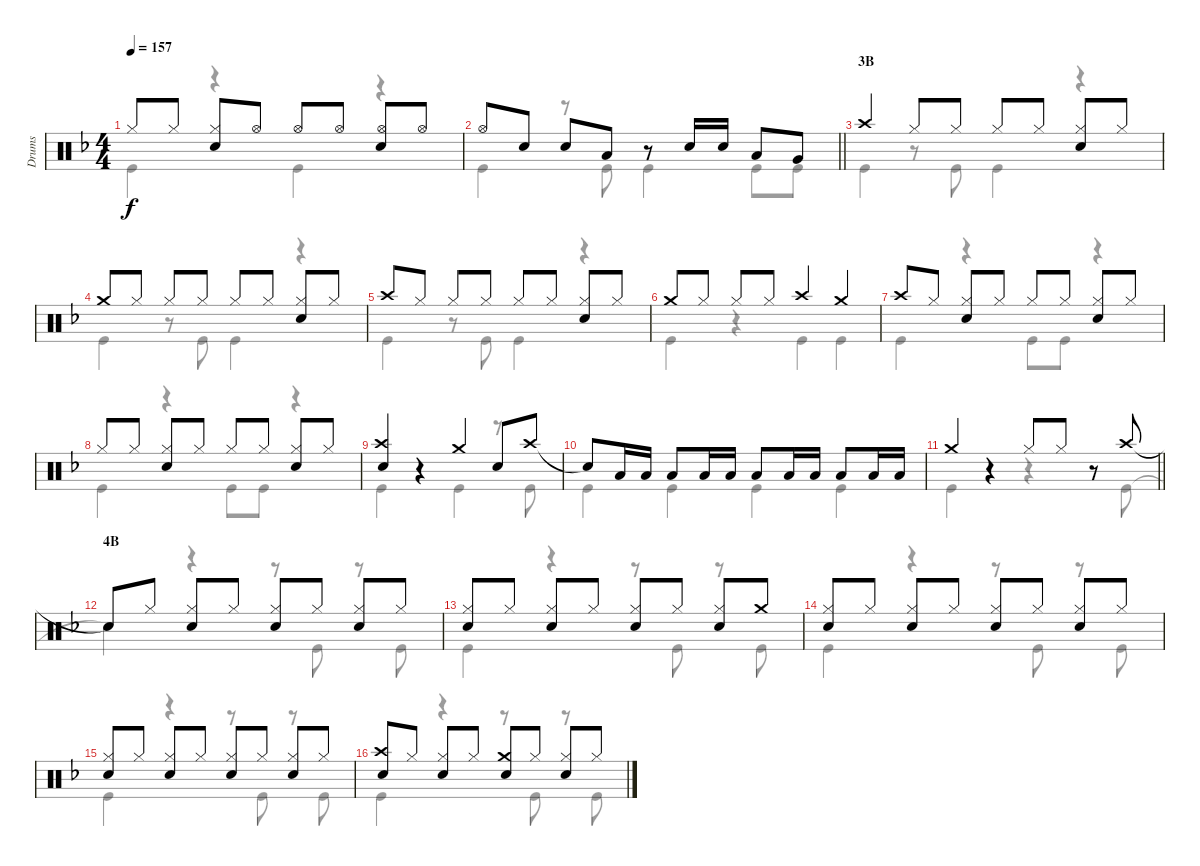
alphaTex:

\track ("Drums" "Drums") {instrument percussion}
\staff {score}
\articulation defaults
\voice
\ts (4 4)
\tempo 157
\clef neutral
\ks f "Hi-Hat (closed)".8{dy f} "Hi-Hat (closed)".8
("Hi-Hat (closed)" "Snare (hit) 2").8 "Hi-Hat (open)".8 "Hi-Hat (open)".8 "Hi-Hat (open)".8 ("Hi-Hat (open)" "Snare (hit) 2").8 "Hi-Hat (open)".8 |
\barLineRight lightlight "Hi-Hat (open)".8 "Snare (hit) 2".8 "Snare (hit) 2".8 "Low Tom (hit)".8
r.8 "Snare (hit) 2".16 "Snare (hit) 2".16 "Low Tom (hit)".8 "Very Low Tom (hit)".8 |
\section ("" "3B")
"Crash high (hit)".4 "Hi-Hat (closed)".8 "Hi-Hat (closed)".8 "Hi-Hat (closed)".8 "Hi-Hat (closed)".8 ("Hi-Hat (closed)" "Snare (hit) 2").8 "Hi-Hat (closed)".8 |
"Crash medium (hit)".8 "Hi-Hat (closed)".8 "Hi-Hat (closed)".8 "Hi-Hat (closed)".8 "Hi-Hat (closed)".8 "Hi-Hat (closed)".8 ("Hi-Hat (closed)" "Snare (hit) 2").8 "Hi-Hat (closed)".8 |
"Crash high (hit)".8 "Hi-Hat (closed)".8 "Hi-Hat (closed)".8 "Hi-Hat (closed)".8 "Hi-Hat (closed)".8 "Hi-Hat (closed)".8 ("Hi-Hat (closed)" "Snare (hit) 2").8 "Hi-Hat (closed)".8 |
"Crash medium (hit)".8 "Hi-Hat (closed)".8 "Hi-Hat (closed)".8 "Hi-Hat (closed)".8 "Crash high (hit)".4 "Crash medium (hit)".4 |
"Crash high (hit)".8 "Hi-Hat (closed)".8 ("Hi-Hat (closed)" "Snare (hit) 2").8 "Hi-Hat (closed)".8 "Hi-Hat (closed)".8 "Hi-Hat (closed)".8 ("Hi-Hat (closed)" "Snare (hit) 2").8 "Hi-Hat (closed)".8 |
"Hi-Hat (closed)".8 "Hi-Hat (closed)".8 ("Hi-Hat (closed)" "Snare (hit) 2").8 "Hi-Hat (closed)".8 "Hi-Hat (closed)".8 "Hi-Hat (closed)".8 ("Hi-Hat (closed)" "Snare (hit) 2").8 "Hi-Hat (closed)".8 |
("Crash high (hit)" "Snare (hit) 2").4 r.4 "Crash medium (hit)".4 "Snare (hit) 2".8 "Crash high (hit)".8 |
"Snare (hit)"{t}.8 "Low Tom (hit)".16 "Low Tom (hit)".16 "Low Tom (hit)".8 "Low Tom (hit)".16 "Low Tom (hit)".16 "Low Tom (hit)".8 "Low Tom (hit)".16 "Low Tom (hit)".16 "Low Tom (hit)".8 "Low Tom (hit)".16 "Low Tom (hit)".16 |
\barLineRight lightlight "Crash medium (hit)".4
r.4 "Hi-Hat (closed)".8 "Hi-Hat (closed)".8 r.8 "Crash high (hit)".8 |
\section ("" "4B")
"Snare (hit)"{t}.8 "Hi-Hat (closed)".8 ("Hi-Hat (closed)" "Snare (hit) 2").8 "Hi-Hat (closed)".8 ("Hi-Hat (closed)" "Snare (hit) 2").8 "Hi-Hat (closed)".8 ("Hi-Hat (closed)" "Snare (hit) 2").8 "Hi-Hat (closed)".8 |
("Hi-Hat (closed)" "Snare (hit) 2").8 "Hi-Hat (closed)".8 ("Hi-Hat (closed)" "Snare (hit) 2").8 "Hi-Hat (closed)".8 ("Hi-Hat (closed)" "Snare (hit) 2").8 "Hi-Hat (closed)".8 ("Hi-Hat (closed)" "Snare (hit) 2").8 "Crash medium (hit)".8 |
("Hi-Hat (closed)" "Snare (hit) 2").8 "Hi-Hat (closed)".8 ("Hi-Hat (closed)" "Snare (hit) 2").8 "Hi-Hat (closed)".8 ("Hi-Hat (closed)" "Snare (hit) 2").8 "Hi-Hat (closed)".8 ("Hi-Hat (closed)" "Snare (hit) 2").8 "Hi-Hat (closed)".8 |
("Hi-Hat (closed)" "Snare (hit) 2").8 "Hi-Hat (closed)".8 ("Hi-Hat (closed)" "Snare (hit) 2").8 "Hi-Hat (closed)".8 ("Hi-Hat (closed)" "Snare (hit) 2").8 "Hi-Hat (closed)".8 ("Hi-Hat (closed)" "Snare (hit) 2").8 "Hi-Hat (closed)".8 |
("Crash high (hit)" "Snare (hit) 2").8 "Hi-Hat (closed)".8 ("Hi-Hat (closed)" "Snare (hit) 2").8 "Hi-Hat (closed)".8 ("Crash medium (hit)" "Snare (hit) 2").8 "Hi-Hat (closed)".8 ("Hi-Hat (closed)" "Snare (hit) 2").8 "Hi-Hat (closed)".8
\voice
\clef neutral
\ottava regular
\simile none
\ks f "Kick (hit)".4{dy f}
r.4 "Kick (hit)".4 r.4 |
\barLineRight lightlight "Kick (hit)".4
r.8 "Kick (hit)".8 "Kick (hit)".4 "Kick (hit)".8 "Kick (hit)".8 |
"Kick (hit)".4 r.8 "Kick (hit)".8 "Kick (hit)".4 r.4 |
"Kick (hit)".4 r.8 "Kick (hit)".8 "Kick (hit)".4 r.4 |
"Kick (hit)".4 r.8 "Kick (hit)".8 "Kick (hit)".4 r.4 |
"Kick (hit)".4 r.4 "Kick (hit)".4 "Kick (hit)".4 |
"Kick (hit)".4 r.4 "Kick (hit)".8 "Kick (hit)".8 r.4 |
"Kick (hit)".4 r.4 "Kick (hit)".8 "Kick (hit)".8 r.4 |
"Kick (hit)".4 r.4 "Kick (hit)".4 r.8 "Kick (hit)".8 |
"Kick (hit)".4 "Kick (hit)".4 "Kick (hit)".4 "Kick (hit)".4 |
\barLineRight lightlight "Kick (hit)".4
r.4 r.4 r.8 "Kick (hit)".8 |
"Snare (hit)"{t}.4 r.4 r.8 "Kick (hit)".8 r.8 "Kick (hit)".8 |
"Kick (hit)".4 r.4 r.8 "Kick (hit)".8 r.8 "Kick (hit)".8 |
"Kick (hit)".4 r.4 r.8 "Kick (hit)".8 r.8 "Kick (hit)".8 |
"Kick (hit)".4 r.4 r.8 "Kick (hit)".8 r.8 "Kick (hit)".8 |
"Kick (hit)".4 r.4 r.8 "Kick (hit)".8 r.8 "Kick (hit)".8
